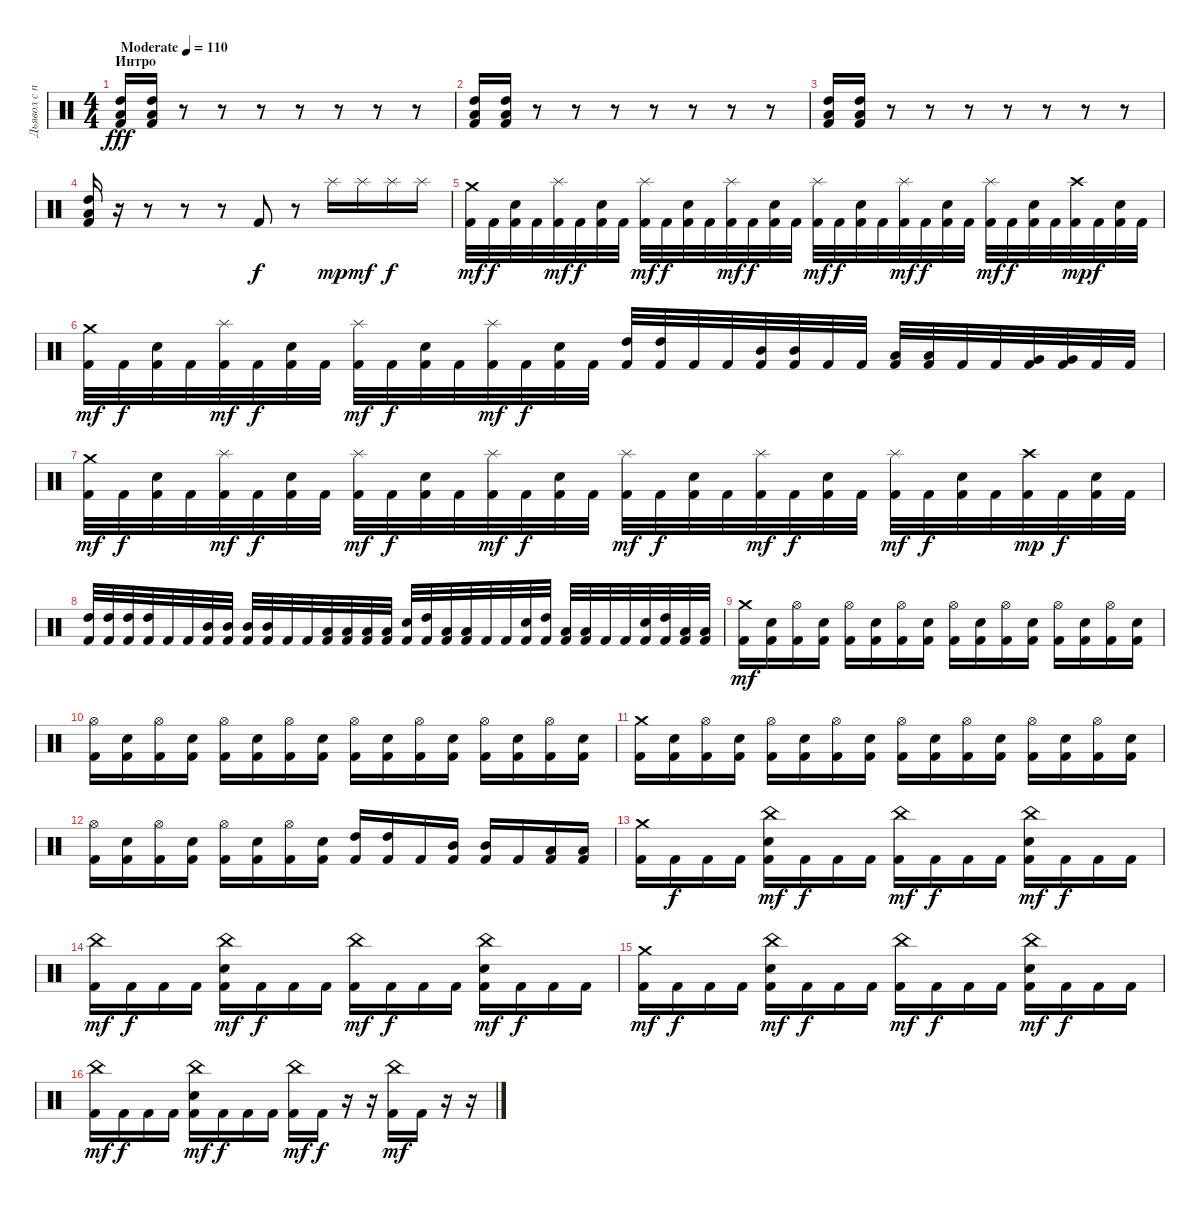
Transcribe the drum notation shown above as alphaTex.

\track ("Дьявол с палками" "Дьявол с п") {instrument percussion}
\staff {score}
\articulation defaults
\ts (4 4)
\section ("" "Интро")
\tempo (110 "Moderate")
\clef neutral
\ks c
("Kick (hit) 2" "Low Tom (hit)" "High Tom (hit)").16{dy fff} ("Kick (hit) 2" "Low Tom (hit)" "High Tom (hit)").16 r.8 r.8 r.8 r.8 r.8 r.8 r.8 |
("Kick (hit) 2" "Low Tom (hit)" "High Tom (hit)").16 ("Kick (hit) 2" "Low Tom (hit)" "High Tom (hit)").16 r.8 r.8 r.8 r.8 r.8 r.8 r.8 |
("Kick (hit) 2" "Low Tom (hit)" "High Tom (hit)").16 ("Kick (hit) 2" "Low Tom (hit)" "High Tom (hit)").16 r.8 r.8 r.8 r.8 r.8 r.8 r.8 |
("Kick (hit) 2" "Low Tom (hit)" "High Tom (hit)").16 r.16 r.8 r.8 r.8 "Kick (hit) 2".8{dy f} r.8 "Splash (hit)".16{dy mp} "Splash (hit)".16{dy mf} "Splash (hit)".16{dy f} "Splash (hit)".16 |
("Kick (hit) 2" "Crash medium (hit)").32{dy mf} "Kick (hit) 2".32{dy f} ("Kick (hit) 2" "Snare (hit) 2").32 "Kick (hit) 2".32 ("Kick (hit) 2" "Splash (hit)").32{dy mf} "Kick (hit) 2".32{dy f} ("Kick (hit) 2" "Snare (hit) 2").32 "Kick (hit) 2".32 ("Kick (hit) 2" "Splash (hit)").32{dy mf} "Kick (hit) 2".32{dy f} ("Kick (hit) 2" "Snare (hit) 2").32 "Kick (hit) 2".32 ("Kick (hit) 2" "Splash (hit)").32{dy mf} "Kick (hit) 2".32{dy f} ("Kick (hit) 2" "Snare (hit) 2").32 "Kick (hit) 2".32 ("Kick (hit) 2" "Splash (hit)").32{dy mf} "Kick (hit) 2".32{dy f} ("Kick (hit) 2" "Snare (hit) 2").32 "Kick (hit) 2".32 ("Kick (hit) 2" "Splash (hit)").32{dy mf} "Kick (hit) 2".32{dy f} ("Kick (hit) 2" "Snare (hit) 2").32 "Kick (hit) 2".32 ("Kick (hit) 2" "Splash (hit)").32{dy mf} "Kick (hit) 2".32{dy f} ("Kick (hit) 2" "Snare (hit) 2").32 "Kick (hit) 2".32 ("Kick (hit) 2" "Crash high (hit)").32{dy mp} "Kick (hit) 2".32{dy f} ("Kick (hit) 2" "Snare (hit) 2").32 "Kick (hit) 2".32 |
("Kick (hit) 2" "Crash medium (hit)").32{dy mf} "Kick (hit) 2".32{dy f} ("Kick (hit) 2" "Snare (hit) 2").32 "Kick (hit) 2".32 ("Kick (hit) 2" "Splash (hit)").32{dy mf} "Kick (hit) 2".32{dy f} ("Kick (hit) 2" "Snare (hit) 2").32 "Kick (hit) 2".32 ("Kick (hit) 2" "Splash (hit)").32{dy mf} "Kick (hit) 2".32{dy f} ("Kick (hit) 2" "Snare (hit) 2").32 "Kick (hit) 2".32 ("Kick (hit) 2" "Splash (hit)").32{dy mf} "Kick (hit) 2".32{dy f} ("Kick (hit) 2" "Snare (hit) 2").32 "Kick (hit) 2".32 ("Kick (hit) 2" "High Tom (hit)").32 ("Kick (hit) 2" "High Tom (hit)").32 "Kick (hit) 2".32 "Kick (hit) 2".32 ("Kick (hit) 2" "Mid Tom (hit)").32 ("Kick (hit) 2" "Mid Tom (hit)").32 "Kick (hit) 2".32 "Kick (hit) 2".32 ("Kick (hit) 2" "Low Tom (hit)").32 ("Kick (hit) 2" "Low Tom (hit)").32 "Kick (hit) 2".32 "Kick (hit) 2".32 ("Kick (hit) 2" "Very Low Tom (hit)").32 ("Kick (hit) 2" "Very Low Tom (hit)").32 "Kick (hit) 2".32 "Kick (hit) 2".32 |
("Kick (hit) 2" "Crash medium (hit)").32{dy mf} "Kick (hit) 2".32{dy f} ("Kick (hit) 2" "Snare (hit) 2").32 "Kick (hit) 2".32 ("Kick (hit) 2" "Splash (hit)").32{dy mf} "Kick (hit) 2".32{dy f} ("Kick (hit) 2" "Snare (hit) 2").32 "Kick (hit) 2".32 ("Kick (hit) 2" "Splash (hit)").32{dy mf} "Kick (hit) 2".32{dy f} ("Kick (hit) 2" "Snare (hit) 2").32 "Kick (hit) 2".32 ("Kick (hit) 2" "Splash (hit)").32{dy mf} "Kick (hit) 2".32{dy f} ("Kick (hit) 2" "Snare (hit) 2").32 "Kick (hit) 2".32 ("Kick (hit) 2" "Splash (hit)").32{dy mf} "Kick (hit) 2".32{dy f} ("Kick (hit) 2" "Snare (hit) 2").32 "Kick (hit) 2".32 ("Kick (hit) 2" "Splash (hit)").32{dy mf} "Kick (hit) 2".32{dy f} ("Kick (hit) 2" "Snare (hit) 2").32 "Kick (hit) 2".32 ("Kick (hit) 2" "Splash (hit)").32{dy mf} "Kick (hit) 2".32{dy f} ("Kick (hit) 2" "Snare (hit) 2").32 "Kick (hit) 2".32 ("Kick (hit) 2" "Crash high (hit)").32{dy mp} "Kick (hit) 2".32{dy f} ("Kick (hit) 2" "Snare (hit) 2").32 "Kick (hit) 2".32 |
("Kick (hit) 2" "High Tom (hit)").32 ("Kick (hit) 2" "High Tom (hit)").32 ("Kick (hit) 2" "High Tom (hit)").32 ("Kick (hit) 2" "High Tom (hit)").32 "Kick (hit) 2".32 "Kick (hit) 2".32 ("Kick (hit) 2" "Mid Tom (hit)").32 ("Kick (hit) 2" "Mid Tom (hit)").32 ("Kick (hit) 2" "Mid Tom (hit)").32 ("Kick (hit) 2" "Mid Tom (hit)").32 "Kick (hit) 2".32 "Kick (hit) 2".32 ("Kick (hit) 2" "Low Tom (hit)").32 ("Kick (hit) 2" "Low Tom (hit)").32 ("Kick (hit) 2" "Low Tom (hit)").32 ("Kick (hit) 2" "Low Tom (hit)").32 ("Kick (hit) 2" "Snare (hit) 2").32 ("Kick (hit) 2" "High Tom (hit)").32 ("Kick (hit) 2" "Low Tom (hit)").32 ("Kick (hit) 2" "Low Tom (hit)").32 "Kick (hit) 2".32 "Kick (hit) 2".32 ("Kick (hit) 2" "Snare (hit) 2").32 ("Kick (hit) 2" "High Tom (hit)").32 ("Kick (hit) 2" "Low Tom (hit)").32 ("Kick (hit) 2" "Low Tom (hit)").32 "Kick (hit) 2".32 "Kick (hit) 2".32 ("Kick (hit) 2" "Snare (hit) 2").32 ("Kick (hit) 2" "High Tom (hit)").32 ("Kick (hit) 2" "Low Tom (hit)").32 ("Kick (hit) 2" "Low Tom (hit)").32 |
("Kick (hit) 2" "Crash medium (hit)").16{dy mf} ("Kick (hit) 2" "Snare (hit) 2").16 ("Kick (hit) 2" "Hi-Hat (open)").16 ("Kick (hit) 2" "Snare (hit) 2").16 ("Kick (hit) 2" "Hi-Hat (open)").16 ("Kick (hit) 2" "Snare (hit) 2").16 ("Kick (hit) 2" "Hi-Hat (open)").16 ("Kick (hit) 2" "Snare (hit) 2").16 ("Kick (hit) 2" "Hi-Hat (open)").16 ("Kick (hit) 2" "Snare (hit) 2").16 ("Kick (hit) 2" "Hi-Hat (open)").16 ("Kick (hit) 2" "Snare (hit) 2").16 ("Kick (hit) 2" "Hi-Hat (open)").16 ("Kick (hit) 2" "Snare (hit) 2").16 ("Kick (hit) 2" "Hi-Hat (open)").16 ("Kick (hit) 2" "Snare (hit) 2").16 |
("Kick (hit) 2" "Hi-Hat (open)").16 ("Kick (hit) 2" "Snare (hit) 2").16 ("Kick (hit) 2" "Hi-Hat (open)").16 ("Kick (hit) 2" "Snare (hit) 2").16 ("Kick (hit) 2" "Hi-Hat (open)").16 ("Kick (hit) 2" "Snare (hit) 2").16 ("Kick (hit) 2" "Hi-Hat (open)").16 ("Kick (hit) 2" "Snare (hit) 2").16 ("Kick (hit) 2" "Hi-Hat (open)").16 ("Kick (hit) 2" "Snare (hit) 2").16 ("Kick (hit) 2" "Hi-Hat (open)").16 ("Kick (hit) 2" "Snare (hit) 2").16 ("Kick (hit) 2" "Hi-Hat (open)").16 ("Kick (hit) 2" "Snare (hit) 2").16 ("Kick (hit) 2" "Hi-Hat (open)").16 ("Kick (hit) 2" "Snare (hit) 2").16 |
("Kick (hit) 2" "Crash medium (hit)").16 ("Kick (hit) 2" "Snare (hit) 2").16 ("Kick (hit) 2" "Hi-Hat (open)").16 ("Kick (hit) 2" "Snare (hit) 2").16 ("Kick (hit) 2" "Hi-Hat (open)").16 ("Kick (hit) 2" "Snare (hit) 2").16 ("Kick (hit) 2" "Hi-Hat (open)").16 ("Kick (hit) 2" "Snare (hit) 2").16 ("Kick (hit) 2" "Hi-Hat (open)").16 ("Kick (hit) 2" "Snare (hit) 2").16 ("Kick (hit) 2" "Hi-Hat (open)").16 ("Kick (hit) 2" "Snare (hit) 2").16 ("Kick (hit) 2" "Hi-Hat (open)").16 ("Kick (hit) 2" "Snare (hit) 2").16 ("Kick (hit) 2" "Hi-Hat (open)").16 ("Kick (hit) 2" "Snare (hit) 2").16 |
("Kick (hit) 2" "Hi-Hat (open)").16 ("Kick (hit) 2" "Snare (hit) 2").16 ("Kick (hit) 2" "Hi-Hat (open)").16 ("Kick (hit) 2" "Snare (hit) 2").16 ("Kick (hit) 2" "Hi-Hat (open)").16 ("Kick (hit) 2" "Snare (hit) 2").16 ("Kick (hit) 2" "Hi-Hat (open)").16 ("Kick (hit) 2" "Snare (hit) 2").16 ("Kick (hit) 2" "High Tom (hit)").16 ("Kick (hit) 2" "High Tom (hit)").16 "Kick (hit) 2".16 ("Kick (hit) 2" "Mid Tom (hit)").16 ("Kick (hit) 2" "Mid Tom (hit)").16 "Kick (hit) 2".16 ("Kick (hit) 2" "Low Tom (hit)").16 ("Kick (hit) 2" "Low Tom (hit)").16 |
("Kick (hit) 2" "Crash medium (hit)").16 "Kick (hit) 2".16{dy f} "Kick (hit) 2".16 "Kick (hit) 2".16 ("Kick (hit) 2" "Snare (hit) 2" "China (hit)").16{dy mf} "Kick (hit) 2".16{dy f} "Kick (hit) 2".16 "Kick (hit) 2".16 ("Kick (hit) 2" "China (hit)").16{dy mf} "Kick (hit) 2".16{dy f} "Kick (hit) 2".16 "Kick (hit) 2".16 ("Kick (hit) 2" "Snare (hit) 2" "China (hit)").16{dy mf} "Kick (hit) 2".16{dy f} "Kick (hit) 2".16 "Kick (hit) 2".16 |
("Kick (hit) 2" "China (hit)").16{dy mf} "Kick (hit) 2".16{dy f} "Kick (hit) 2".16 "Kick (hit) 2".16 ("Kick (hit) 2" "Snare (hit) 2" "China (hit)").16{dy mf} "Kick (hit) 2".16{dy f} "Kick (hit) 2".16 "Kick (hit) 2".16 ("Kick (hit) 2" "China (hit)").16{dy mf} "Kick (hit) 2".16{dy f} "Kick (hit) 2".16 "Kick (hit) 2".16 ("Kick (hit) 2" "Snare (hit) 2" "China (hit)").16{dy mf} "Kick (hit) 2".16{dy f} "Kick (hit) 2".16 "Kick (hit) 2".16 |
("Kick (hit) 2" "Crash medium (hit)").16{dy mf} "Kick (hit) 2".16{dy f} "Kick (hit) 2".16 "Kick (hit) 2".16 ("Kick (hit) 2" "Snare (hit) 2" "China (hit)").16{dy mf} "Kick (hit) 2".16{dy f} "Kick (hit) 2".16 "Kick (hit) 2".16 ("Kick (hit) 2" "China (hit)").16{dy mf} "Kick (hit) 2".16{dy f} "Kick (hit) 2".16 "Kick (hit) 2".16 ("Kick (hit) 2" "Snare (hit) 2" "China (hit)").16{dy mf} "Kick (hit) 2".16{dy f} "Kick (hit) 2".16 "Kick (hit) 2".16 |
("Kick (hit) 2" "China (hit)").16{dy mf} "Kick (hit) 2".16{dy f} "Kick (hit) 2".16 "Kick (hit) 2".16 ("Kick (hit) 2" "Snare (hit) 2" "China (hit)").16{dy mf} "Kick (hit) 2".16{dy f} "Kick (hit) 2".16 "Kick (hit) 2".16 ("Kick (hit) 2" "China (hit)").16{dy mf} "Kick (hit) 2".16{dy f} r.16 r.16 ("Kick (hit) 2" "China (hit)").16{dy mf} "Kick (hit) 2".16 r.16 r.16
